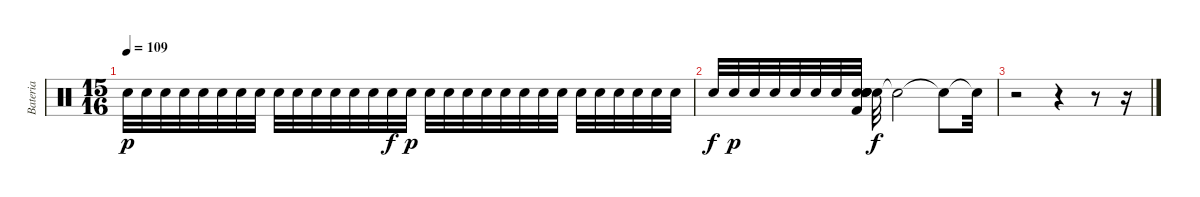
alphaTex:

\track ("Bateria" "Bateria") {instrument percussion}
\staff {score}
\articulation defaults
\ts (15 16)
\tempo 109
\clef neutral
\ks c "Electric Snare (hit)".32{dy p} "Electric Snare (hit)".32 "Electric Snare (hit)".32 "Electric Snare (hit)".32 "Electric Snare (hit)".32 "Electric Snare (hit)".32 "Electric Snare (hit)".32 "Electric Snare (hit)".32 "Electric Snare (hit)".32 "Electric Snare (hit)".32 "Electric Snare (hit)".32 "Electric Snare (hit)".32 "Electric Snare (hit)".32 "Electric Snare (hit)".32 "Electric Snare (hit)".32{dy f} "Electric Snare (hit)".32{dy p} "Electric Snare (hit)".32 "Electric Snare (hit)".32 "Electric Snare (hit)".32 "Electric Snare (hit)".32 "Electric Snare (hit)".32 "Electric Snare (hit)".32 "Electric Snare (hit)".32 "Electric Snare (hit)".32 "Electric Snare (hit)".32 "Electric Snare (hit)".32 "Electric Snare (hit)".32 "Electric Snare (hit)".32 "Electric Snare (hit)".32 "Electric Snare (hit)".32
|
"Electric Snare (hit)".32{dy f} "Electric Snare (hit)".32{dy p} "Electric Snare (hit)".32 "Electric Snare (hit)".32 "Electric Snare (hit)".32 "Electric Snare (hit)".32 "Electric Snare (hit)".32 ("Electric Snare (hit)" "Electric Snare (hit)" "Kick (hit) 2" "Electric Snare (hit)" "Electric Snare (hit)" "Electric Snare (hit)").32 "Electric Snare (hit)"{t}.32{dy f} "Snare (hit)"{t}.2 "Snare (hit)"{t}.8 "Snare (hit)"{t}.32 |
r.2 r.4 r.8 r.16
